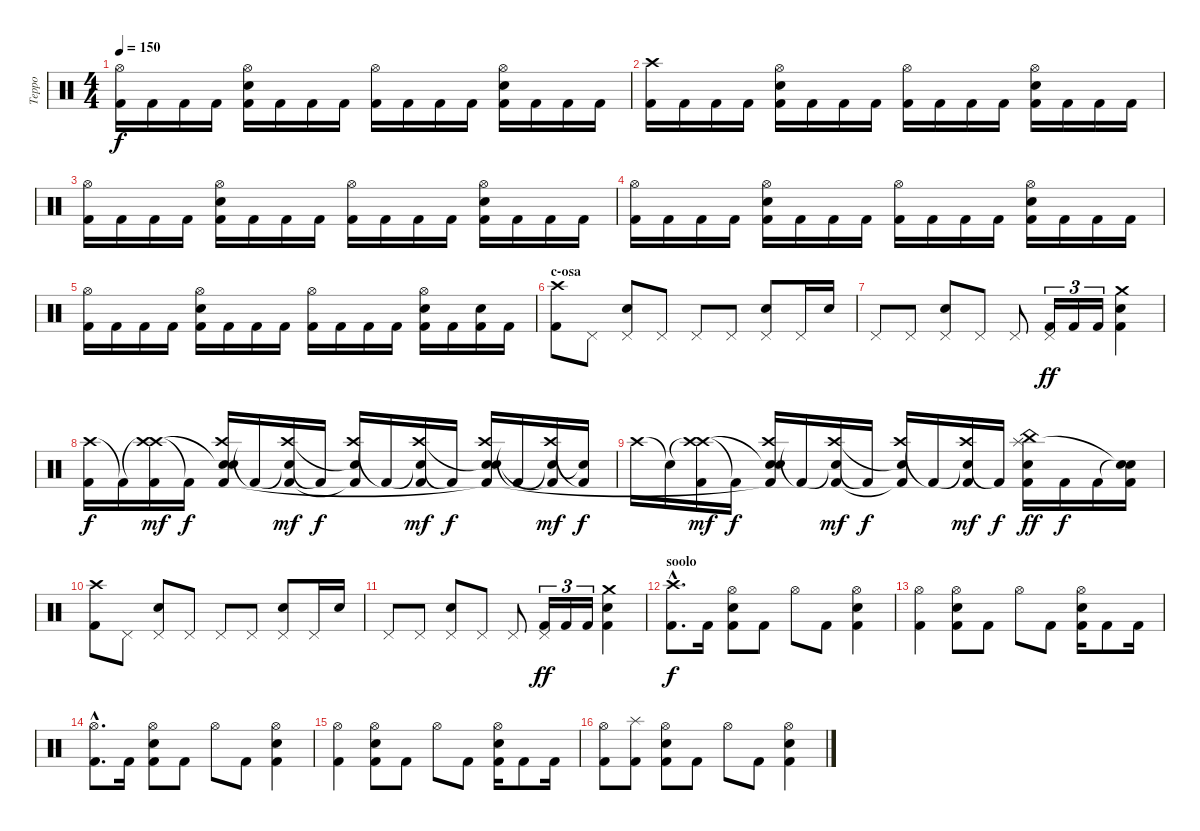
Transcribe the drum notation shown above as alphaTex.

\track ("Teppo" "Teppo") {instrument percussion}
\staff {score}
\articulation defaults
\ts (4 4)
\tempo 150
\clef neutral
\ks c
("Hi-Hat (open)" "Kick (hit) 2").16{dy f} "Kick (hit) 2".16 "Kick (hit) 2".16 "Kick (hit) 2".16 ("Hi-Hat (open)" "Electric Snare (hit)" "Kick (hit) 2").16 "Kick (hit) 2".16 "Kick (hit) 2".16 "Kick (hit) 2".16 ("Hi-Hat (open)" "Kick (hit) 2").16 "Kick (hit) 2".16 "Kick (hit) 2".16 "Kick (hit) 2".16 ("Hi-Hat (open)" "Electric Snare (hit)" "Kick (hit) 2").16 "Kick (hit) 2".16 "Kick (hit) 2".16 "Kick (hit) 2".16 |
("Crash high (hit)" "Kick (hit) 2").16 "Kick (hit) 2".16 "Kick (hit) 2".16 "Kick (hit) 2".16 ("Hi-Hat (open)" "Electric Snare (hit)" "Kick (hit) 2").16 "Kick (hit) 2".16 "Kick (hit) 2".16 "Kick (hit) 2".16 ("Hi-Hat (open)" "Kick (hit) 2").16 "Kick (hit) 2".16 "Kick (hit) 2".16 "Kick (hit) 2".16 ("Hi-Hat (open)" "Electric Snare (hit)" "Kick (hit) 2").16 "Kick (hit) 2".16 "Kick (hit) 2".16 "Kick (hit) 2".16 |
("Hi-Hat (open)" "Kick (hit) 2").16 "Kick (hit) 2".16 "Kick (hit) 2".16 "Kick (hit) 2".16 ("Hi-Hat (open)" "Electric Snare (hit)" "Kick (hit) 2").16 "Kick (hit) 2".16 "Kick (hit) 2".16 "Kick (hit) 2".16 ("Hi-Hat (open)" "Kick (hit) 2").16 "Kick (hit) 2".16 "Kick (hit) 2".16 "Kick (hit) 2".16 ("Hi-Hat (open)" "Electric Snare (hit)" "Kick (hit) 2").16 "Kick (hit) 2".16 "Kick (hit) 2".16 "Kick (hit) 2".16 |
("Hi-Hat (open)" "Kick (hit) 2").16 "Kick (hit) 2".16 "Kick (hit) 2".16 "Kick (hit) 2".16 ("Hi-Hat (open)" "Electric Snare (hit)" "Kick (hit) 2").16 "Kick (hit) 2".16 "Kick (hit) 2".16 "Kick (hit) 2".16 ("Hi-Hat (open)" "Kick (hit) 2").16 "Kick (hit) 2".16 "Kick (hit) 2".16 "Kick (hit) 2".16 ("Hi-Hat (open)" "Electric Snare (hit)" "Kick (hit) 2").16 "Kick (hit) 2".16 "Kick (hit) 2".16 "Kick (hit) 2".16 |
("Hi-Hat (open)" "Kick (hit) 2").16{txt " "} "Kick (hit) 2".16 "Kick (hit) 2".16 "Kick (hit) 2".16 ("Hi-Hat (open)" "Electric Snare (hit)" "Kick (hit) 2").16 "Kick (hit) 2".16 "Kick (hit) 2".16 "Kick (hit) 2".16 ("Hi-Hat (open)" "Kick (hit) 2").16 "Kick (hit) 2".16 "Kick (hit) 2".16 "Kick (hit) 2".16 ("Hi-Hat (open)" "Electric Snare (hit)" "Kick (hit) 2").16 "Kick (hit) 2".16 ("Electric Snare (hit)" "Kick (hit) 2").16 "Kick (hit) 2".16 |
\section ("" "c-osa")
("Crash high (hit)" "Kick (hit) 2").8 "Pedal Hi-Hat (hit)".8 ("Pedal Hi-Hat (hit)" "Electric Snare (hit)").8 "Pedal Hi-Hat (hit)".8 "Pedal Hi-Hat (hit)".8 "Pedal Hi-Hat (hit)".8 ("Pedal Hi-Hat (hit)" "Electric Snare (hit)").8 "Pedal Hi-Hat (hit)".16 "Electric Snare (hit)".16 |
"Pedal Hi-Hat (hit)".8 "Pedal Hi-Hat (hit)".8 ("Pedal Hi-Hat (hit)" "Electric Snare (hit)").8 "Pedal Hi-Hat (hit)".8 "Pedal Hi-Hat (hit)".8 ("Pedal Hi-Hat (hit)" "Kick (hit) 2").16{tu (3 2) dy ff} "Kick (hit) 2".16{tu (3 2)} "Kick (hit) 2".16{tu (3 2)} ("Crash medium (hit)" "Electric Snare (hit)" "Kick (hit) 2").4 |
("Crash high (hit)" "Kick (hit) 2").16{dy f} "Kick (hit) 2"{t}.16 ("Crash high (hit)"{t} "Crash high (hit)" "Kick (hit) 2").16{dy mf} "Kick (hit) 2"{t}.16{dy f} ("Crash high (hit)" "Snare (hit)"{t} "Electric Snare (hit)" "Kick (hit) 2").16 "Kick (hit) 2"{t}.16 ("Snare (hit)"{t} "Crash high (hit)" "Kick (hit) 2").16{dy mf} "Kick (hit) 2"{t}.16{dy f} ("Crash high (hit)" "Snare (hit)"{t} "Kick (hit) 2"{t}).16 "Kick (hit) 2"{t}.16 ("Snare (hit)"{t} "Crash high (hit)" "Kick (hit) 2").16{dy mf} "Kick (hit) 2"{t}.16{dy f} ("Crash high (hit)" "Snare (hit)"{t} "Electric Snare (hit)" "Kick (hit) 2"{t}).16 "Kick (hit) 2"{t}.16 ("Snare (hit)"{t} "Crash high (hit)" "Kick (hit) 2"{t}).16{dy mf} ("Snare (hit)"{t} "Kick (hit) 2"{t}).16{dy f} |
"Crash high (hit)".16 "Snare (hit)"{t}.16 ("Crash high (hit)"{t} "Crash high (hit)" "Kick (hit) 2").16{dy mf} "Kick (hit) 2"{t}.16{dy f} ("Crash high (hit)" "Snare (hit)"{t} "Electric Snare (hit)" "Kick (hit) 2"{t}).16 "Kick (hit) 2"{t}.16 ("Snare (hit)"{t} "Crash high (hit)" "Kick (hit) 2").16{dy mf} "Kick (hit) 2"{t}.16{dy f} ("Crash high (hit)" "Snare (hit)"{t} "Kick (hit) 2"{t}).16 "Kick (hit) 2"{t}.16 ("Snare (hit)"{t} "Crash high (hit)" "Kick (hit) 2").16{dy mf} "Kick (hit) 2"{t}.16{dy f} ("China (hit)" "Splash (hit)" "Electric Snare (hit)" "Kick (hit) 2").16{dy ff} "Kick (hit) 2".16{dy f} "Kick (hit) 2".16 ("Snare (hit)"{t} "Snare (hit)"{t} "Kick (hit) 2").16 |
("Crash high (hit)" "Kick (hit) 2").8 "Pedal Hi-Hat (hit)".8 ("Pedal Hi-Hat (hit)" "Electric Snare (hit)").8 "Pedal Hi-Hat (hit)".8 "Pedal Hi-Hat (hit)".8 "Pedal Hi-Hat (hit)".8 ("Pedal Hi-Hat (hit)" "Electric Snare (hit)").8 "Pedal Hi-Hat (hit)".16 "Electric Snare (hit)".16 |
"Pedal Hi-Hat (hit)".8 "Pedal Hi-Hat (hit)".8 ("Pedal Hi-Hat (hit)" "Electric Snare (hit)").8 "Pedal Hi-Hat (hit)".8 "Pedal Hi-Hat (hit)".8 ("Pedal Hi-Hat (hit)" "Kick (hit) 2").16{tu (3 2) dy ff} "Kick (hit) 2".16{tu (3 2)} "Kick (hit) 2".16{tu (3 2)} ("Crash medium (hit)" "Electric Snare (hit)" "Kick (hit) 2").4 |
\section ("" "soolo")
("Crash high (hit)"{hac} "Kick (hit) 2"{hac}).8{d dy f} "Kick (hit) 2".16 ("Hi-Hat (open)" "Electric Snare (hit)" "Kick (hit) 2").8 "Kick (hit) 2".8 "Hi-Hat (open)".8 "Kick (hit) 2".8 ("Hi-Hat (open)" "Electric Snare (hit)" "Kick (hit) 2").4 |
("Hi-Hat (open)" "Kick (hit) 2").4 ("Hi-Hat (open)" "Electric Snare (hit)" "Kick (hit) 2").8 "Kick (hit) 2".8 "Hi-Hat (open)".8 "Kick (hit) 2".8 ("Hi-Hat (open)" "Electric Snare (hit)" "Kick (hit) 2").16 "Kick (hit) 2".8 "Kick (hit) 2".16 |
("Hi-Hat (open)"{hac} "Kick (hit) 2"{hac}).8{d} "Kick (hit) 2".16 ("Hi-Hat (open)" "Electric Snare (hit)" "Kick (hit) 2").8 "Kick (hit) 2".8 "Hi-Hat (open)".8 "Kick (hit) 2".8 ("Hi-Hat (open)" "Electric Snare (hit)" "Kick (hit) 2").4 |
("Hi-Hat (open)" "Kick (hit) 2").4 ("Hi-Hat (open)" "Electric Snare (hit)" "Kick (hit) 2").8 "Kick (hit) 2".8 "Hi-Hat (open)".8 "Kick (hit) 2".8 ("Hi-Hat (open)" "Electric Snare (hit)" "Kick (hit) 2").16 "Kick (hit) 2".8 "Kick (hit) 2".16 |
("Hi-Hat (open)" "Kick (hit) 2").8 ("Splash (hit)" "Kick (hit) 2").8 ("Hi-Hat (open)" "Electric Snare (hit)" "Kick (hit) 2").8 "Kick (hit) 2".8 "Hi-Hat (open)".8 "Kick (hit) 2".8 ("Hi-Hat (open)" "Electric Snare (hit)" "Kick (hit) 2").4
